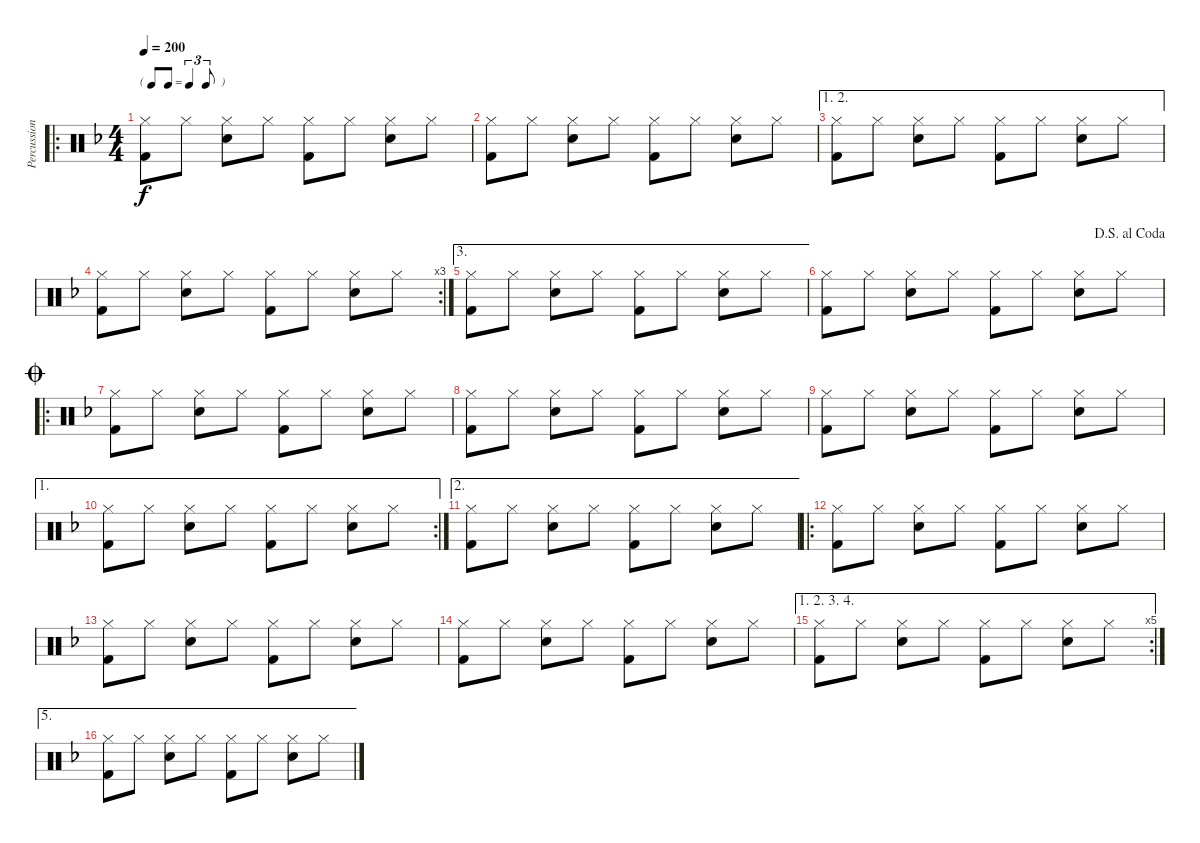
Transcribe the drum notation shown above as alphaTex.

\track ("Percussion" "Percussion") {instrument percussion}
\staff {score}
\articulation defaults
\ro
\ts (4 4)
\tf triplet8th
\tempo 200
\clef neutral
\ks f
("Hi-Hat (closed)" "Kick (hit) 2").8{dy f} "Hi-Hat (closed)".8 ("Hi-Hat (closed)" "Electric Snare (hit)").8 "Hi-Hat (closed)".8 ("Hi-Hat (closed)" "Kick (hit) 2").8 "Hi-Hat (closed)".8 ("Hi-Hat (closed)" "Electric Snare (hit)").8 "Hi-Hat (closed)".8 |
("Hi-Hat (closed)" "Kick (hit) 2").8 "Hi-Hat (closed)".8 ("Hi-Hat (closed)" "Electric Snare (hit)").8 "Hi-Hat (closed)".8 ("Hi-Hat (closed)" "Kick (hit) 2").8 "Hi-Hat (closed)".8 ("Hi-Hat (closed)" "Electric Snare (hit)").8 "Hi-Hat (closed)".8 |
\ae (1 2)
("Hi-Hat (closed)" "Kick (hit) 2").8 "Hi-Hat (closed)".8 ("Hi-Hat (closed)" "Electric Snare (hit)").8 "Hi-Hat (closed)".8 ("Hi-Hat (closed)" "Kick (hit) 2").8 "Hi-Hat (closed)".8 ("Hi-Hat (closed)" "Electric Snare (hit)").8 "Hi-Hat (closed)".8 |
\rc 3
("Hi-Hat (closed)" "Kick (hit) 2").8 "Hi-Hat (closed)".8 ("Hi-Hat (closed)" "Electric Snare (hit)").8 "Hi-Hat (closed)".8 ("Hi-Hat (closed)" "Kick (hit) 2").8 "Hi-Hat (closed)".8 ("Hi-Hat (closed)" "Electric Snare (hit)").8 "Hi-Hat (closed)".8 |
\ae 3
("Hi-Hat (closed)" "Kick (hit) 2").8 "Hi-Hat (closed)".8 ("Hi-Hat (closed)" "Electric Snare (hit)").8 "Hi-Hat (closed)".8 ("Hi-Hat (closed)" "Kick (hit) 2").8 "Hi-Hat (closed)".8 ("Hi-Hat (closed)" "Electric Snare (hit)").8 "Hi-Hat (closed)".8 |
\jump dalsegnoalcoda
("Hi-Hat (closed)" "Kick (hit) 2").8 "Hi-Hat (closed)".8 ("Hi-Hat (closed)" "Electric Snare (hit)").8 "Hi-Hat (closed)".8 ("Hi-Hat (closed)" "Kick (hit) 2").8 "Hi-Hat (closed)".8 ("Hi-Hat (closed)" "Electric Snare (hit)").8 "Hi-Hat (closed)".8 |
\ro
\jump coda
("Hi-Hat (closed)" "Kick (hit) 2").8 "Hi-Hat (closed)".8 ("Hi-Hat (closed)" "Electric Snare (hit)").8 "Hi-Hat (closed)".8 ("Hi-Hat (closed)" "Kick (hit) 2").8 "Hi-Hat (closed)".8 ("Hi-Hat (closed)" "Electric Snare (hit)").8 "Hi-Hat (closed)".8 |
("Hi-Hat (closed)" "Kick (hit) 2").8 "Hi-Hat (closed)".8 ("Hi-Hat (closed)" "Electric Snare (hit)").8 "Hi-Hat (closed)".8 ("Hi-Hat (closed)" "Kick (hit) 2").8 "Hi-Hat (closed)".8 ("Hi-Hat (closed)" "Electric Snare (hit)").8 "Hi-Hat (closed)".8 |
("Hi-Hat (closed)" "Kick (hit) 2").8 "Hi-Hat (closed)".8 ("Hi-Hat (closed)" "Electric Snare (hit)").8 "Hi-Hat (closed)".8 ("Hi-Hat (closed)" "Kick (hit) 2").8 "Hi-Hat (closed)".8 ("Hi-Hat (closed)" "Electric Snare (hit)").8 "Hi-Hat (closed)".8 |
\ae 1
\rc 2
("Hi-Hat (closed)" "Kick (hit) 2").8 "Hi-Hat (closed)".8 ("Hi-Hat (closed)" "Electric Snare (hit)").8 "Hi-Hat (closed)".8 ("Hi-Hat (closed)" "Kick (hit) 2").8 "Hi-Hat (closed)".8 ("Hi-Hat (closed)" "Electric Snare (hit)").8 "Hi-Hat (closed)".8 |
\ae 2
("Hi-Hat (closed)" "Kick (hit) 2").8 "Hi-Hat (closed)".8 ("Hi-Hat (closed)" "Electric Snare (hit)").8 "Hi-Hat (closed)".8 ("Hi-Hat (closed)" "Kick (hit) 2").8 "Hi-Hat (closed)".8 ("Hi-Hat (closed)" "Electric Snare (hit)").8 "Hi-Hat (closed)".8 |
\ro
("Hi-Hat (closed)" "Kick (hit) 2").8 "Hi-Hat (closed)".8 ("Hi-Hat (closed)" "Electric Snare (hit)").8 "Hi-Hat (closed)".8 ("Hi-Hat (closed)" "Kick (hit) 2").8 "Hi-Hat (closed)".8 ("Hi-Hat (closed)" "Electric Snare (hit)").8 "Hi-Hat (closed)".8 |
("Hi-Hat (closed)" "Kick (hit) 2").8 "Hi-Hat (closed)".8 ("Hi-Hat (closed)" "Electric Snare (hit)").8 "Hi-Hat (closed)".8 ("Hi-Hat (closed)" "Kick (hit) 2").8 "Hi-Hat (closed)".8 ("Hi-Hat (closed)" "Electric Snare (hit)").8 "Hi-Hat (closed)".8 |
("Hi-Hat (closed)" "Kick (hit) 2").8 "Hi-Hat (closed)".8 ("Hi-Hat (closed)" "Electric Snare (hit)").8 "Hi-Hat (closed)".8 ("Hi-Hat (closed)" "Kick (hit) 2").8 "Hi-Hat (closed)".8 ("Hi-Hat (closed)" "Electric Snare (hit)").8 "Hi-Hat (closed)".8 |
\ae (1 2 3 4)
\rc 5
("Hi-Hat (closed)" "Kick (hit) 2").8 "Hi-Hat (closed)".8 ("Hi-Hat (closed)" "Electric Snare (hit)").8 "Hi-Hat (closed)".8 ("Hi-Hat (closed)" "Kick (hit) 2").8 "Hi-Hat (closed)".8 ("Hi-Hat (closed)" "Electric Snare (hit)").8 "Hi-Hat (closed)".8 |
\ae 5
("Hi-Hat (closed)" "Kick (hit) 2").8 "Hi-Hat (closed)".8 ("Hi-Hat (closed)" "Electric Snare (hit)").8 "Hi-Hat (closed)".8 ("Hi-Hat (closed)" "Kick (hit) 2").8 "Hi-Hat (closed)".8 ("Hi-Hat (closed)" "Electric Snare (hit)").8 "Hi-Hat (closed)".8
